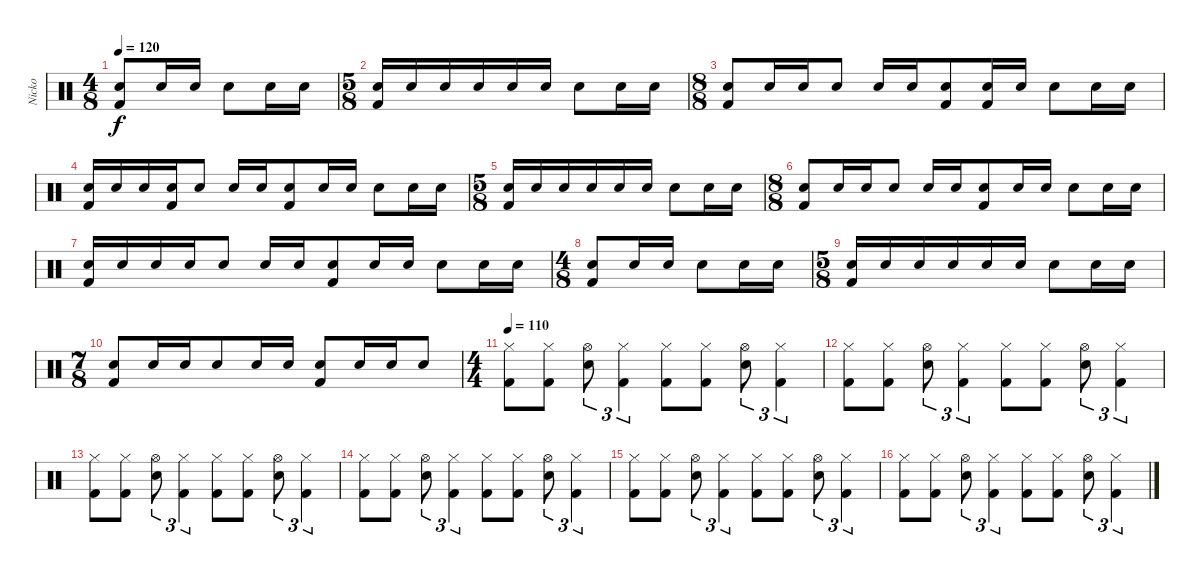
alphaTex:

\track ("Nicko" "Nicko") {instrument percussion}
\staff {score}
\articulation defaults
\ts (4 8)
\tempo 120
\clef neutral
\ks c
("Electric Snare (hit)" "Kick (hit) 2").8{dy f} "Electric Snare (hit)".16 "Electric Snare (hit)".16 "Electric Snare (hit)".8 "Electric Snare (hit)".16 "Electric Snare (hit)".16 |
\ts (5 8)
("Electric Snare (hit)" "Kick (hit) 2").16 "Electric Snare (hit)".16 "Electric Snare (hit)".16 "Electric Snare (hit)".16 "Electric Snare (hit)".16 "Electric Snare (hit)".16 "Electric Snare (hit)".8 "Electric Snare (hit)".16 "Electric Snare (hit)".16 |
\ts (8 8)
("Electric Snare (hit)" "Kick (hit) 2").8 "Electric Snare (hit)".16 "Electric Snare (hit)".16 "Electric Snare (hit)".8 "Electric Snare (hit)".16 "Electric Snare (hit)".16 ("Electric Snare (hit)" "Kick (hit) 2").8 ("Electric Snare (hit)" "Kick (hit) 2").16 "Electric Snare (hit)".16 "Electric Snare (hit)".8 "Electric Snare (hit)".16 "Electric Snare (hit)".16 |
("Electric Snare (hit)" "Kick (hit) 2").16 "Electric Snare (hit)".16 "Electric Snare (hit)".16 ("Electric Snare (hit)" "Kick (hit) 2").16 "Electric Snare (hit)".8 "Electric Snare (hit)".16 "Electric Snare (hit)".16 ("Electric Snare (hit)" "Kick (hit) 2").8 "Electric Snare (hit)".16 "Electric Snare (hit)".16 "Electric Snare (hit)".8 "Electric Snare (hit)".16 "Electric Snare (hit)".16 |
\ts (5 8)
("Electric Snare (hit)" "Kick (hit) 2").16 "Electric Snare (hit)".16 "Electric Snare (hit)".16 "Electric Snare (hit)".16 "Electric Snare (hit)".16 "Electric Snare (hit)".16 "Electric Snare (hit)".8 "Electric Snare (hit)".16 "Electric Snare (hit)".16 |
\ts (8 8)
("Electric Snare (hit)" "Kick (hit) 2").8 "Electric Snare (hit)".16 "Electric Snare (hit)".16 "Electric Snare (hit)".8 "Electric Snare (hit)".16 "Electric Snare (hit)".16 ("Electric Snare (hit)" "Kick (hit) 2").8 "Electric Snare (hit)".16 "Electric Snare (hit)".16 "Electric Snare (hit)".8 "Electric Snare (hit)".16 "Electric Snare (hit)".16 |
("Electric Snare (hit)" "Kick (hit) 2").16 "Electric Snare (hit)".16 "Electric Snare (hit)".16 "Electric Snare (hit)".16 "Electric Snare (hit)".8 "Electric Snare (hit)".16 "Electric Snare (hit)".16 ("Electric Snare (hit)" "Kick (hit) 2").8 "Electric Snare (hit)".16 "Electric Snare (hit)".16 "Electric Snare (hit)".8 "Electric Snare (hit)".16 "Electric Snare (hit)".16 |
\ts (4 8)
("Electric Snare (hit)" "Kick (hit) 2").8 "Electric Snare (hit)".16 "Electric Snare (hit)".16 "Electric Snare (hit)".8 "Electric Snare (hit)".16 "Electric Snare (hit)".16 |
\ts (5 8)
("Electric Snare (hit)" "Kick (hit) 2").16 "Electric Snare (hit)".16 "Electric Snare (hit)".16 "Electric Snare (hit)".16 "Electric Snare (hit)".16 "Electric Snare (hit)".16 "Electric Snare (hit)".8 "Electric Snare (hit)".16 "Electric Snare (hit)".16 |
\ts (7 8)
("Electric Snare (hit)" "Kick (hit) 2").8 "Electric Snare (hit)".16 "Electric Snare (hit)".16 "Electric Snare (hit)".8 "Electric Snare (hit)".16 "Electric Snare (hit)".16 ("Electric Snare (hit)" "Kick (hit) 2").8 "Electric Snare (hit)".16 "Electric Snare (hit)".16 "Electric Snare (hit)".8 |
\ts (4 4)
\tempo 107
\tempo 110
("Kick (hit) 2" "Hi-Hat (closed)").8 ("Kick (hit) 2" "Hi-Hat (closed)").8 ("Snare (hit) 2" "Hi-Hat (open)").8{tu (3 2)} ("Kick (hit) 2" "Hi-Hat (closed)").4{tu (3 2)} ("Kick (hit) 2" "Hi-Hat (closed)").8 ("Kick (hit) 2" "Hi-Hat (closed)").8 ("Snare (hit) 2" "Hi-Hat (open)").8{tu (3 2)} ("Kick (hit) 2" "Hi-Hat (closed)").4{tu (3 2)} |
("Kick (hit) 2" "Hi-Hat (closed)").8 ("Kick (hit) 2" "Hi-Hat (closed)").8 ("Snare (hit) 2" "Hi-Hat (open)").8{tu (3 2)} ("Kick (hit) 2" "Hi-Hat (closed)").4{tu (3 2)} ("Kick (hit) 2" "Hi-Hat (closed)").8 ("Kick (hit) 2" "Hi-Hat (closed)").8 ("Snare (hit) 2" "Hi-Hat (open)").8{tu (3 2)} ("Kick (hit) 2" "Hi-Hat (closed)").4{tu (3 2)} |
("Kick (hit) 2" "Hi-Hat (closed)").8 ("Kick (hit) 2" "Hi-Hat (closed)").8 ("Snare (hit) 2" "Hi-Hat (open)").8{tu (3 2)} ("Kick (hit) 2" "Hi-Hat (closed)").4{tu (3 2)} ("Kick (hit) 2" "Hi-Hat (closed)").8 ("Kick (hit) 2" "Hi-Hat (closed)").8 ("Snare (hit) 2" "Hi-Hat (open)").8{tu (3 2)} ("Kick (hit) 2" "Hi-Hat (closed)").4{tu (3 2)} |
("Kick (hit) 2" "Hi-Hat (closed)").8 ("Kick (hit) 2" "Hi-Hat (closed)").8 ("Snare (hit) 2" "Hi-Hat (open)").8{tu (3 2)} ("Kick (hit) 2" "Hi-Hat (closed)").4{tu (3 2)} ("Kick (hit) 2" "Hi-Hat (closed)").8 ("Kick (hit) 2" "Hi-Hat (closed)").8 ("Snare (hit) 2" "Hi-Hat (open)").8{tu (3 2)} ("Kick (hit) 2" "Hi-Hat (closed)").4{tu (3 2)} |
("Kick (hit) 2" "Hi-Hat (closed)").8 ("Kick (hit) 2" "Hi-Hat (closed)").8 ("Snare (hit) 2" "Hi-Hat (open)").8{tu (3 2)} ("Kick (hit) 2" "Hi-Hat (closed)").4{tu (3 2)} ("Kick (hit) 2" "Hi-Hat (closed)").8 ("Kick (hit) 2" "Hi-Hat (closed)").8 ("Snare (hit) 2" "Hi-Hat (open)").8{tu (3 2)} ("Kick (hit) 2" "Hi-Hat (closed)").4{tu (3 2)} |
("Kick (hit) 2" "Hi-Hat (closed)").8 ("Kick (hit) 2" "Hi-Hat (closed)").8 ("Snare (hit) 2" "Hi-Hat (open)").8{tu (3 2)} ("Kick (hit) 2" "Hi-Hat (closed)").4{tu (3 2)} ("Kick (hit) 2" "Hi-Hat (closed)").8 ("Kick (hit) 2" "Hi-Hat (closed)").8 ("Snare (hit) 2" "Hi-Hat (open)").8{tu (3 2)} ("Kick (hit) 2" "Hi-Hat (closed)").4{tu (3 2)}
